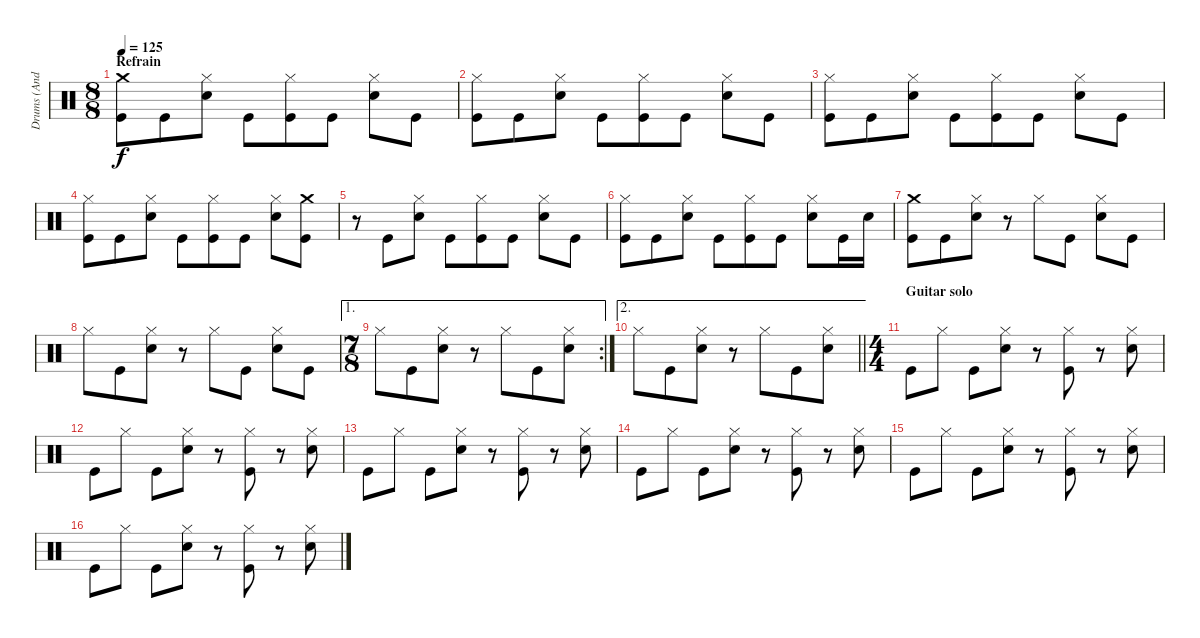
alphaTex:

\track ("Drums (Andy Parker)" "Drums (And") {instrument percussion}
\staff {score}
\articulation defaults
\ts (8 8)
\section ("" "Refrain")
\tempo 125
\clef neutral
\ks c
("Crash medium (hit)" "Kick (hit)").8{dy f} "Kick (hit)".8 ("Hi-Hat (closed)" "Electric Snare (hit)").8 "Kick (hit)".8 ("Hi-Hat (closed)" "Kick (hit)").8 "Kick (hit)".8 ("Hi-Hat (closed)" "Electric Snare (hit)").8 "Kick (hit)".8 |
("Hi-Hat (closed)" "Kick (hit)").8 "Kick (hit)".8 ("Hi-Hat (closed)" "Electric Snare (hit)").8 "Kick (hit)".8 ("Hi-Hat (closed)" "Kick (hit)").8 "Kick (hit)".8 ("Hi-Hat (closed)" "Electric Snare (hit)").8 "Kick (hit)".8 |
("Hi-Hat (closed)" "Kick (hit)").8 "Kick (hit)".8 ("Hi-Hat (closed)" "Electric Snare (hit)").8 "Kick (hit)".8 ("Hi-Hat (closed)" "Kick (hit)").8 "Kick (hit)".8 ("Hi-Hat (closed)" "Electric Snare (hit)").8 "Kick (hit)".8 |
("Hi-Hat (closed)" "Kick (hit)").8 "Kick (hit)".8 ("Hi-Hat (closed)" "Electric Snare (hit)").8 "Kick (hit)".8 ("Hi-Hat (closed)" "Kick (hit)").8 "Kick (hit)".8 ("Hi-Hat (closed)" "Electric Snare (hit)").8 ("Crash medium (hit)" "Kick (hit)").8 |
r.8 "Kick (hit)".8 ("Hi-Hat (closed)" "Electric Snare (hit)").8 "Kick (hit)".8 ("Hi-Hat (closed)" "Kick (hit)").8 "Kick (hit)".8 ("Hi-Hat (closed)" "Electric Snare (hit)").8 "Kick (hit)".8 |
("Hi-Hat (closed)" "Kick (hit)").8 "Kick (hit)".8 ("Hi-Hat (closed)" "Electric Snare (hit)").8 "Kick (hit)".8 ("Hi-Hat (closed)" "Kick (hit)").8 "Kick (hit)".8 ("Hi-Hat (closed)" "Electric Snare (hit)").8 "Kick (hit)".16 "Electric Snare (hit)".16 |
("Crash medium (hit)" "Kick (hit)").8 "Kick (hit)".8 ("Hi-Hat (closed)" "Electric Snare (hit)").8 r.8 "Hi-Hat (closed)".8 "Kick (hit)".8 ("Hi-Hat (closed)" "Electric Snare (hit)").8 "Kick (hit)".8 |
"Hi-Hat (closed)".8 "Kick (hit)".8 ("Hi-Hat (closed)" "Electric Snare (hit)").8 r.8 "Hi-Hat (closed)".8 "Kick (hit)".8 ("Hi-Hat (closed)" "Electric Snare (hit)").8 "Kick (hit)".8 |
\ae 1
\rc 2
\ts (7 8)
"Hi-Hat (closed)".8 "Kick (hit)".8 ("Hi-Hat (closed)" "Electric Snare (hit)").8 r.8 "Hi-Hat (closed)".8 "Kick (hit)".8 ("Hi-Hat (closed)" "Electric Snare (hit)").8 |
\ae 2
\barLineRight lightlight "Hi-Hat (closed)".8 "Kick (hit)".8
("Hi-Hat (closed)" "Electric Snare (hit)").8 r.8 "Hi-Hat (closed)".8 "Kick (hit)".8 ("Hi-Hat (closed)" "Electric Snare (hit)").8 |
\ts (4 4)
\section ("" "Guitar solo")
"Kick (hit)".8 "Hi-Hat (closed)".8 "Kick (hit)".8 ("Hi-Hat (closed)" "Electric Snare (hit)").8 r.8 ("Hi-Hat (closed)" "Kick (hit)").8 r.8 ("Hi-Hat (closed)" "Electric Snare (hit)").8 |
"Kick (hit)".8 "Hi-Hat (closed)".8 "Kick (hit)".8 ("Hi-Hat (closed)" "Electric Snare (hit)").8 r.8 ("Hi-Hat (closed)" "Kick (hit)").8 r.8 ("Hi-Hat (closed)" "Electric Snare (hit)").8 |
"Kick (hit)".8 "Hi-Hat (closed)".8 "Kick (hit)".8 ("Hi-Hat (closed)" "Electric Snare (hit)").8 r.8 ("Hi-Hat (closed)" "Kick (hit)").8 r.8 ("Hi-Hat (closed)" "Electric Snare (hit)").8 |
"Kick (hit)".8 "Hi-Hat (closed)".8 "Kick (hit)".8 ("Hi-Hat (closed)" "Electric Snare (hit)").8 r.8 ("Hi-Hat (closed)" "Kick (hit)").8 r.8 ("Hi-Hat (closed)" "Electric Snare (hit)").8 |
"Kick (hit)".8 "Hi-Hat (closed)".8 "Kick (hit)".8 ("Hi-Hat (closed)" "Electric Snare (hit)").8 r.8 ("Hi-Hat (closed)" "Kick (hit)").8 r.8 ("Hi-Hat (closed)" "Electric Snare (hit)").8 |
"Kick (hit)".8 "Hi-Hat (closed)".8 "Kick (hit)".8 ("Hi-Hat (closed)" "Electric Snare (hit)").8 r.8 ("Hi-Hat (closed)" "Kick (hit)").8 r.8 ("Hi-Hat (closed)" "Electric Snare (hit)").8
